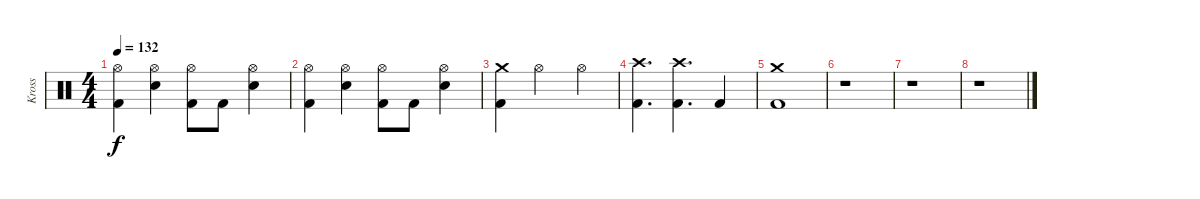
\track ("Kross" "Kross") {instrument percussion}
\staff {score}
\articulation defaults
\ts (4 4)
\tempo 132
\clef neutral
\ks c
("Hi-Hat (open)" "Kick (hit) 2").4{dy f} ("Hi-Hat (open)" "Electric Snare (hit)").4 ("Hi-Hat (open)" "Kick (hit) 2").8 "Kick (hit) 2".8 ("Hi-Hat (open)" "Electric Snare (hit)").4 |
("Hi-Hat (open)" "Kick (hit) 2").4 ("Hi-Hat (open)" "Electric Snare (hit)").4 ("Hi-Hat (open)" "Kick (hit) 2").8 "Kick (hit) 2".8 ("Hi-Hat (open)" "Electric Snare (hit)").4 |
("Crash medium (hit)" "Kick (hit) 2").4 "Hi-Hat (open)".2 "Hi-Hat (open)".4 |
("Crash high (hit)" "Kick (hit) 2").4{d} ("Crash high (hit)" "Kick (hit) 2").4{d} "Kick (hit) 2".4 |
("Crash medium (hit)" "Kick (hit) 2").1 |
r.1 |
r.1 |
r.1
